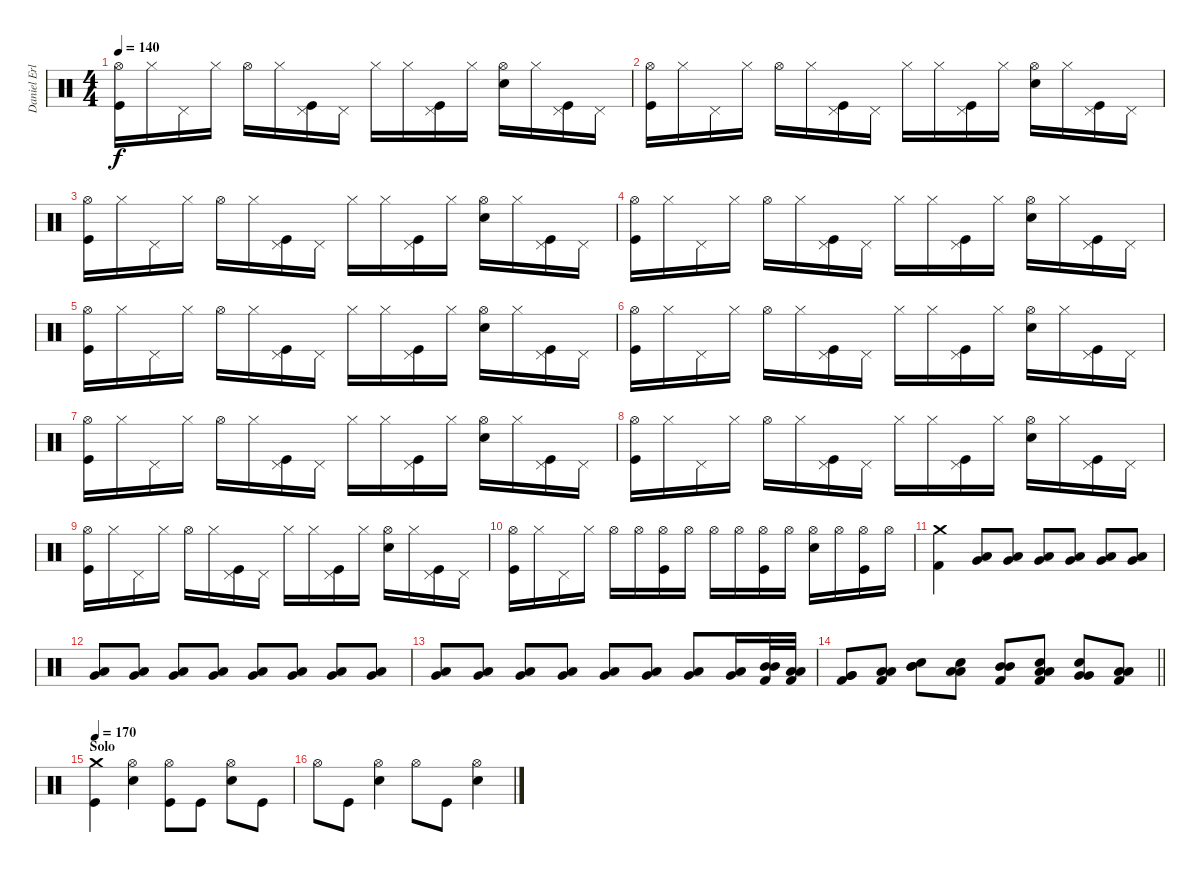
\track ("Daniel Erlandson" "Daniel Erl") {instrument percussion}
\staff {score}
\articulation defaults
\ts (4 4)
\tempo 140
\clef neutral
\ks c
("Hi-Hat (open)" "Kick (hit)").16{dy f} "Hi-Hat (closed)".16 "Pedal Hi-Hat (hit)".16 "Hi-Hat (closed)".16 "Hi-Hat (open)".16 "Hi-Hat (closed)".16 ("Pedal Hi-Hat (hit)" "Kick (hit)").16 "Pedal Hi-Hat (hit)".16 "Hi-Hat (closed)".16 "Hi-Hat (closed)".16 ("Pedal Hi-Hat (hit)" "Kick (hit)").16 "Hi-Hat (closed)".16 ("Hi-Hat (open)" "Electric Snare (hit)").16 "Hi-Hat (closed)".16 ("Pedal Hi-Hat (hit)" "Kick (hit)").16 "Pedal Hi-Hat (hit)".16 |
("Hi-Hat (open)" "Kick (hit)").16 "Hi-Hat (closed)".16 "Pedal Hi-Hat (hit)".16 "Hi-Hat (closed)".16 "Hi-Hat (open)".16 "Hi-Hat (closed)".16 ("Pedal Hi-Hat (hit)" "Kick (hit)").16 "Pedal Hi-Hat (hit)".16 "Hi-Hat (closed)".16 "Hi-Hat (closed)".16 ("Pedal Hi-Hat (hit)" "Kick (hit)").16 "Hi-Hat (closed)".16 ("Hi-Hat (open)" "Electric Snare (hit)").16 "Hi-Hat (closed)".16 ("Pedal Hi-Hat (hit)" "Kick (hit)").16 "Pedal Hi-Hat (hit)".16 |
("Hi-Hat (open)" "Kick (hit)").16 "Hi-Hat (closed)".16 "Pedal Hi-Hat (hit)".16 "Hi-Hat (closed)".16 "Hi-Hat (open)".16 "Hi-Hat (closed)".16 ("Pedal Hi-Hat (hit)" "Kick (hit)").16 "Pedal Hi-Hat (hit)".16 "Hi-Hat (closed)".16 "Hi-Hat (closed)".16 ("Pedal Hi-Hat (hit)" "Kick (hit)").16 "Hi-Hat (closed)".16 ("Hi-Hat (open)" "Electric Snare (hit)").16 "Hi-Hat (closed)".16 ("Pedal Hi-Hat (hit)" "Kick (hit)").16 "Pedal Hi-Hat (hit)".16 |
("Hi-Hat (open)" "Kick (hit)").16 "Hi-Hat (closed)".16 "Pedal Hi-Hat (hit)".16 "Hi-Hat (closed)".16 "Hi-Hat (open)".16 "Hi-Hat (closed)".16 ("Pedal Hi-Hat (hit)" "Kick (hit)").16 "Pedal Hi-Hat (hit)".16 "Hi-Hat (closed)".16 "Hi-Hat (closed)".16 ("Pedal Hi-Hat (hit)" "Kick (hit)").16 "Hi-Hat (closed)".16 ("Hi-Hat (open)" "Electric Snare (hit)").16 "Hi-Hat (closed)".16 ("Pedal Hi-Hat (hit)" "Kick (hit)").16 "Pedal Hi-Hat (hit)".16 |
("Hi-Hat (open)" "Kick (hit)").16 "Hi-Hat (closed)".16 "Pedal Hi-Hat (hit)".16 "Hi-Hat (closed)".16 "Hi-Hat (open)".16 "Hi-Hat (closed)".16 ("Pedal Hi-Hat (hit)" "Kick (hit)").16 "Pedal Hi-Hat (hit)".16 "Hi-Hat (closed)".16 "Hi-Hat (closed)".16 ("Pedal Hi-Hat (hit)" "Kick (hit)").16 "Hi-Hat (closed)".16 ("Hi-Hat (open)" "Electric Snare (hit)").16 "Hi-Hat (closed)".16 ("Pedal Hi-Hat (hit)" "Kick (hit)").16 "Pedal Hi-Hat (hit)".16 |
("Hi-Hat (open)" "Kick (hit)").16 "Hi-Hat (closed)".16 "Pedal Hi-Hat (hit)".16 "Hi-Hat (closed)".16 "Hi-Hat (open)".16 "Hi-Hat (closed)".16 ("Pedal Hi-Hat (hit)" "Kick (hit)").16 "Pedal Hi-Hat (hit)".16 "Hi-Hat (closed)".16 "Hi-Hat (closed)".16 ("Pedal Hi-Hat (hit)" "Kick (hit)").16 "Hi-Hat (closed)".16 ("Hi-Hat (open)" "Electric Snare (hit)").16 "Hi-Hat (closed)".16 ("Pedal Hi-Hat (hit)" "Kick (hit)").16 "Pedal Hi-Hat (hit)".16 |
("Hi-Hat (open)" "Kick (hit)").16 "Hi-Hat (closed)".16 "Pedal Hi-Hat (hit)".16 "Hi-Hat (closed)".16 "Hi-Hat (open)".16 "Hi-Hat (closed)".16 ("Pedal Hi-Hat (hit)" "Kick (hit)").16 "Pedal Hi-Hat (hit)".16 "Hi-Hat (closed)".16 "Hi-Hat (closed)".16 ("Pedal Hi-Hat (hit)" "Kick (hit)").16 "Hi-Hat (closed)".16 ("Hi-Hat (open)" "Electric Snare (hit)").16 "Hi-Hat (closed)".16 ("Pedal Hi-Hat (hit)" "Kick (hit)").16 "Pedal Hi-Hat (hit)".16 |
("Hi-Hat (open)" "Kick (hit)").16 "Hi-Hat (closed)".16 "Pedal Hi-Hat (hit)".16 "Hi-Hat (closed)".16 "Hi-Hat (open)".16 "Hi-Hat (closed)".16 ("Pedal Hi-Hat (hit)" "Kick (hit)").16 "Pedal Hi-Hat (hit)".16 "Hi-Hat (closed)".16 "Hi-Hat (closed)".16 ("Pedal Hi-Hat (hit)" "Kick (hit)").16 "Hi-Hat (closed)".16 ("Hi-Hat (open)" "Electric Snare (hit)").16 "Hi-Hat (closed)".16 ("Pedal Hi-Hat (hit)" "Kick (hit)").16 "Pedal Hi-Hat (hit)".16 |
("Hi-Hat (open)" "Kick (hit)").16 "Hi-Hat (closed)".16 "Pedal Hi-Hat (hit)".16 "Hi-Hat (closed)".16 "Hi-Hat (open)".16 "Hi-Hat (closed)".16 ("Pedal Hi-Hat (hit)" "Kick (hit)").16 "Pedal Hi-Hat (hit)".16 "Hi-Hat (closed)".16 "Hi-Hat (closed)".16 ("Pedal Hi-Hat (hit)" "Kick (hit)").16 "Hi-Hat (closed)".16 ("Hi-Hat (open)" "Electric Snare (hit)").16 "Hi-Hat (closed)".16 ("Pedal Hi-Hat (hit)" "Kick (hit)").16 "Pedal Hi-Hat (hit)".16 |
("Hi-Hat (open)" "Kick (hit)").16 "Hi-Hat (closed)".16 "Pedal Hi-Hat (hit)".16 "Hi-Hat (closed)".16 "Hi-Hat (open)".16 "Hi-Hat (open)".16 ("Hi-Hat (open)" "Kick (hit)").16 "Hi-Hat (open)".16 "Hi-Hat (open)".16 "Hi-Hat (open)".16 ("Hi-Hat (open)" "Kick (hit)").16 "Hi-Hat (open)".16 ("Hi-Hat (open)" "Electric Snare (hit)").16 "Hi-Hat (open)".16 ("Hi-Hat (open)" "Kick (hit)").16 "Hi-Hat (open)".16 |
("Crash medium (hit)" "Kick (hit) 2").4 ("Very Low Tom (hit)" "Low Tom (hit)").8 ("Very Low Tom (hit)" "Low Tom (hit)").8 ("Very Low Tom (hit)" "Low Tom (hit)").8 ("Very Low Tom (hit)" "Low Tom (hit)").8 ("Very Low Tom (hit)" "Low Tom (hit)").8 ("Very Low Tom (hit)" "Low Tom (hit)").8 |
("Very Low Tom (hit)" "Low Tom (hit)").8 ("Very Low Tom (hit)" "Low Tom (hit)").8 ("Very Low Tom (hit)" "Low Tom (hit)").8 ("Very Low Tom (hit)" "Low Tom (hit)").8 ("Very Low Tom (hit)" "Low Tom (hit)").8 ("Very Low Tom (hit)" "Low Tom (hit)").8 ("Very Low Tom (hit)" "Low Tom (hit)").8 ("Very Low Tom (hit)" "Low Tom (hit)").8 |
("Very Low Tom (hit)" "Low Tom (hit)").8 ("Very Low Tom (hit)" "Low Tom (hit)").8 ("Very Low Tom (hit)" "Low Tom (hit)").8 ("Very Low Tom (hit)" "Low Tom (hit)").8 ("Very Low Tom (hit)" "Low Tom (hit)").8 ("Very Low Tom (hit)" "Low Tom (hit)").8 ("Very Low Tom (hit)" "Low Tom (hit)").8 ("Very Low Tom (hit)" "Low Tom (hit)").16 ("Mid Tom (hit)" "Mid Tom (hit)" "Kick (hit) 2").32 ("Low Tom (hit)" "Low Tom (hit)" "Kick (hit) 2").32 |
\barLineRight lightlight
("Very Low Tom (hit)" "Very Low Tom (hit)" "Kick (hit) 2").8 ("Low Floor Tom (hit)" "Low Floor Tom (hit)" "Kick (hit) 2").8 ("Mid Tom (hit)" "Mid Tom (hit)" "Electric Snare (hit)").8 ("Low Tom (hit)" "Low Tom (hit)" "Electric Snare (hit)").8 ("Mid Tom (hit)" "Mid Tom (hit)" "Kick (hit) 2").8 ("Low Tom (hit)" "Low Tom (hit)" "Electric Snare (hit)" "Kick (hit) 2").8 ("Very Low Tom (hit)" "Very Low Tom (hit)" "Electric Snare (hit)").8 ("Low Floor Tom (hit)" "Low Floor Tom (hit)" "Kick (hit) 2").8 |
\section ("" "Solo")
\tempo 170
("Crash medium (hit)" "Kick (hit)").4 ("Hi-Hat (open)" "Electric Snare (hit)").4 ("Hi-Hat (open)" "Kick (hit)").8 "Kick (hit)".8 ("Hi-Hat (open)" "Electric Snare (hit)").8 "Kick (hit)".8 |
"Hi-Hat (open)".8 "Kick (hit)".8 ("Hi-Hat (open)" "Electric Snare (hit)").4 "Hi-Hat (open)".8 "Kick (hit)".8 ("Hi-Hat (open)" "Electric Snare (hit)").4
